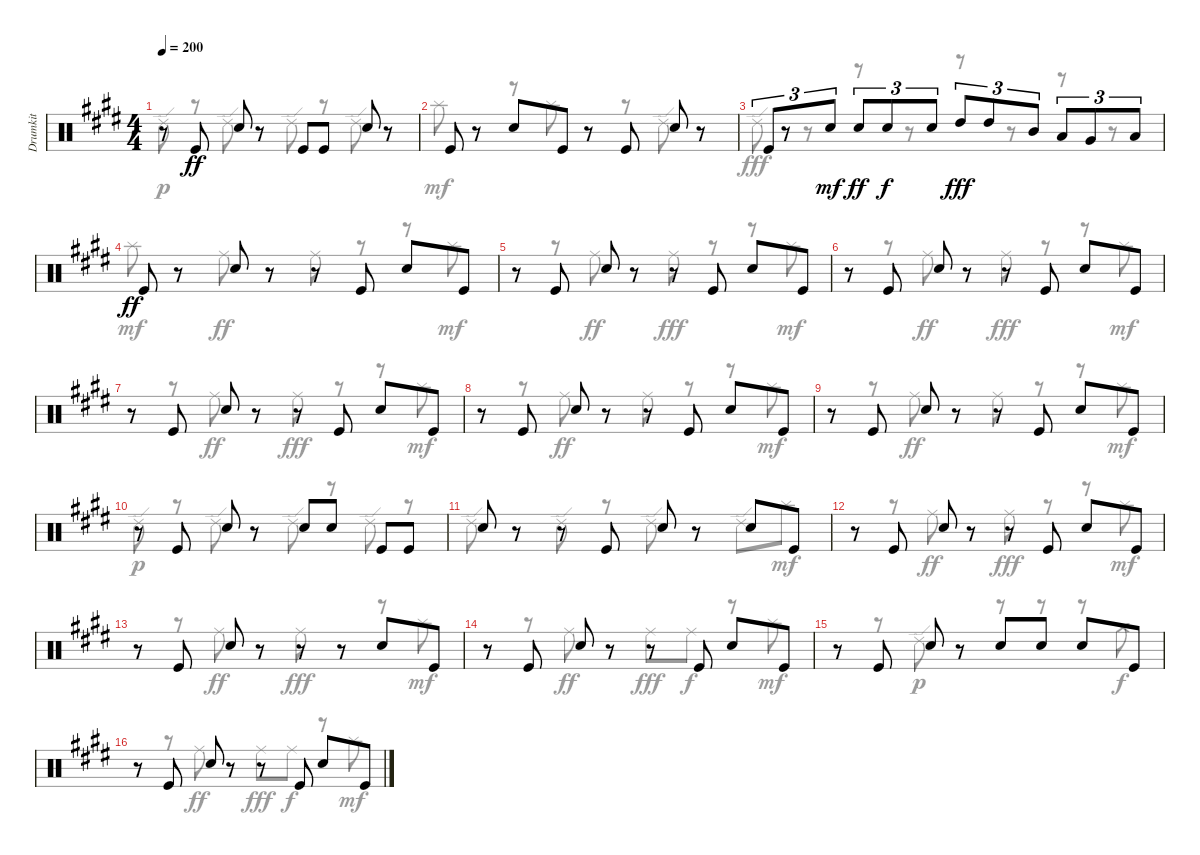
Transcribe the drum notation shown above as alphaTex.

\track ("Drumkit" "Drumkit") {instrument percussion}
\staff {score}
\articulation defaults
\voice
\ts (4 4)
\tempo 200
\clef neutral
\ks c#minor
r.8{dy ff} "Kick (hit)".8 "Snare (hit) 2".8 r.8 "Kick (hit)".8 "Kick (hit)".8 "Snare (hit) 2".8 r.8 |
"Kick (hit)".8 r.8 "Snare (hit) 2".8 "Kick (hit)".8 r.8 "Kick (hit)".8 "Snare (hit) 2".8 r.8 |
"Kick (hit)".8{tu (3 2)} r.8{tu (3 2)} "Snare (hit) 2".8{tu (3 2) dy mf} "Snare (hit) 2".8{tu (3 2) dy ff} "Snare (hit) 2".8{tu (3 2) dy f} "Snare (hit) 2".8{tu (3 2)} "High Tom (hit)".8{tu (3 2) dy fff} "High Tom (hit)".8{tu (3 2)} "Mid Tom (hit)".8{tu (3 2)} "Low Tom (hit)".8{tu (3 2)} "Very Low Tom (hit)".8{tu (3 2)} "Low Floor Tom (hit)".8{tu (3 2)} |
"Kick (hit)".8{dy ff} r.8 "Snare (hit) 2".8 r.8 r.8 "Kick (hit)".8 "Snare (hit) 2".8 "Kick (hit)".8 |
r.8 "Kick (hit)".8 "Snare (hit) 2".8 r.8 r.8 "Kick (hit)".8 "Snare (hit) 2".8 "Kick (hit)".8 |
r.8 "Kick (hit)".8 "Snare (hit) 2".8 r.8 r.8 "Kick (hit)".8 "Snare (hit) 2".8 "Kick (hit)".8 |
r.8 "Kick (hit)".8 "Snare (hit) 2".8 r.8 r.8 "Kick (hit)".8 "Snare (hit) 2".8 "Kick (hit)".8 |
r.8 "Kick (hit)".8 "Snare (hit) 2".8 r.8 r.8 "Kick (hit)".8 "Snare (hit) 2".8 "Kick (hit)".8 |
r.8 "Kick (hit)".8 "Snare (hit) 2".8 r.8 r.8 "Kick (hit)".8 "Snare (hit) 2".8 "Kick (hit)".8 |
r.8 "Kick (hit)".8 "Snare (hit) 2".8 r.8 "Snare (hit) 2".8 "Snare (hit) 2".8 "Kick (hit)".8 "Kick (hit)".8 |
"Snare (hit) 2".8 r.8 r.8 "Kick (hit)".8 "Snare (hit) 2".8 r.8 "Snare (hit) 2".8 "Kick (hit)".8 |
r.8 "Kick (hit)".8 "Snare (hit) 2".8 r.8 r.8 "Kick (hit)".8 "Snare (hit) 2".8 "Kick (hit)".8 |
r.8 "Kick (hit)".8 "Snare (hit) 2".8 r.8 r.8 r.8 "Snare (hit) 2".8 "Kick (hit)".8 |
r.8 "Kick (hit)".8 "Snare (hit) 2".8 r.8 r.8 "Kick (hit)".8 "Snare (hit) 2".8 "Kick (hit)".8 |
r.8 "Kick (hit)".8 "Snare (hit) 2".8 r.8 "Snare (hit) 2".8 "Snare (hit) 2".8 "Snare (hit) 2".8 "Kick (hit)".8 |
r.8 "Kick (hit)".8 "Snare (hit) 2".8 r.8 r.8 "Kick (hit)".8 "Snare (hit) 2".8 "Kick (hit)".8
\voice
\clef neutral
\ottava regular
\simile none
\ks c#minor "Ride (edge) 2".8{dy p}
r.8 "Ride (edge) 2".8 r.8 "Ride (edge) 2".8 r.8 "Ride (edge) 2".8 r.8 |
"Splash (hit)".8{dy mf} r.8 r.8 "Splash (hit)".8 r.8 r.8 "Ride (edge) 2".8 r.8 |
"Ride (edge) 2".8{dy fff} r.8 r.8 r.8 r.8 r.8 r.8 r.8 |
"Splash (hit)".8{dy mf} r.8 "Ride (middle)".8{dy ff} r.8 "Ride (middle)".8 r.8 r.8 "Splash (hit)".8{dy mf} |
r.8 r.8 "Ride (middle)".8{dy ff} r.8 "Ride (middle)".8{dy fff} r.8 r.8 "Splash (hit)".8{dy mf} |
r.8 r.8 "Ride (middle)".8{dy ff} r.8 "Ride (middle)".8{dy fff} r.8 r.8 "Splash (hit)".8{dy mf} |
r.8 r.8 "Ride (middle)".8{dy ff} r.8 "Ride (middle)".8{dy fff} r.8 r.8 "Splash (hit)".8{dy mf} |
r.8 r.8 "Ride (middle)".8{dy ff} r.8 "Ride (middle)".8 r.8 r.8 "Splash (hit)".8{dy mf} |
r.8 r.8 "Ride (middle)".8{dy ff} r.8 "Ride (middle)".8 r.8 r.8 "Splash (hit)".8{dy mf} |
"Ride (edge) 2".8{dy p} r.8 "Ride (edge) 2".8 r.8 "Ride (edge) 2".8 r.8 "Ride (edge) 2".8 r.8 |
"Ride (edge) 2".8 r.8 "Ride (edge) 2".8 r.8 "Ride (edge) 2".8 r.8 "Ride (edge) 2".8 "Splash (hit)".8{dy mf} |
r.8 r.8 "Ride (middle)".8{dy ff} r.8 "Ride (middle)".8{dy fff} r.8 r.8 "Splash (hit)".8{dy mf} |
r.8 r.8 "Ride (middle)".8{dy ff} r.8 "Ride (middle)".8{dy fff} r.8 r.8 "Splash (hit)".8{dy mf} |
r.8 r.8 "Ride (middle)".8{dy ff} r.8 "Ride (middle)".8{dy fff} "Ride (middle)".8{dy f} r.8 "Splash (hit)".8{dy mf} |
r.8 r.8 "Ride (edge) 2".8{dy p} r.8 r.8 r.8 r.8 "Crash medium (hit)".8{dy f} |
r.8 r.8 "Ride (middle)".8{dy ff} r.8 "Ride (middle)".8{dy fff} "Ride (middle)".8{dy f} r.8 "Splash (hit)".8{dy mf}
